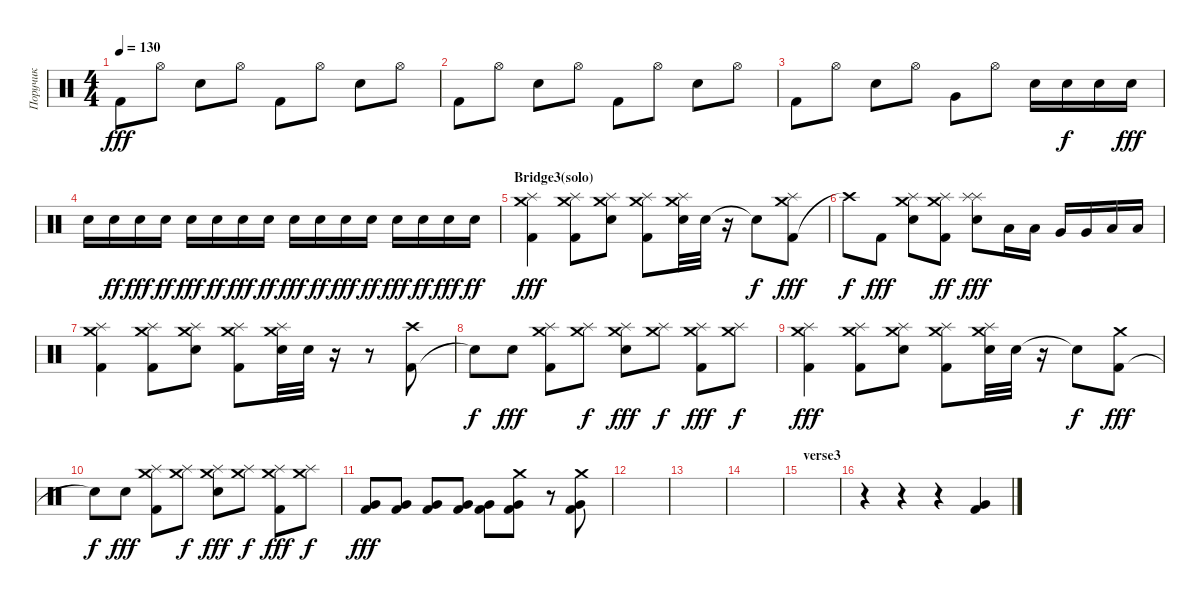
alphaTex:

\track ("Поручик" "Поручик") {instrument percussion}
\staff {score}
\articulation defaults
\ts (4 4)
\tempo 130
\clef neutral
\ks c "Kick (hit) 2".8{dy fff} "Hi-Hat (open)".8 "Snare (hit) 2".8 "Hi-Hat (open)".8 "Kick (hit) 2".8 "Hi-Hat (open)".8 "Snare (hit) 2".8 "Hi-Hat (open)".8
|
"Kick (hit) 2".8 "Hi-Hat (open)".8 "Snare (hit) 2".8 "Hi-Hat (open)".8 "Kick (hit) 2".8 "Hi-Hat (open)".8 "Snare (hit) 2".8 "Hi-Hat (open)".8 |
"Kick (hit) 2".8 "Hi-Hat (open)".8 "Snare (hit) 2".8 "Hi-Hat (open)".8 "Very Low Tom (hit)".8 "Hi-Hat (open)".8 "Snare (hit) 2".16 "Snare (hit) 2".16{dy f} "Snare (hit) 2".16 "Snare (hit) 2".16{dy fff} |
"Snare (hit) 2".16 "Snare (hit) 2".16{dy ff} "Snare (hit) 2".16{dy fff} "Snare (hit) 2".16{dy ff} "Snare (hit) 2".16{dy fff} "Snare (hit) 2".16{dy ff} "Snare (hit) 2".16{dy fff} "Snare (hit) 2".16{dy ff} "Snare (hit) 2".16{dy fff} "Snare (hit) 2".16{dy ff} "Snare (hit) 2".16{dy fff} "Snare (hit) 2".16{dy ff} "Snare (hit) 2".16{dy fff} "Snare (hit) 2".16{dy ff} "Snare (hit) 2".16{dy fff} "Snare (hit) 2".16{dy ff} |
\section ("" "Bridge3(solo)")
("Kick (hit) 2" "Crash medium (hit)" "Splash (hit)").4{dy fff} ("Kick (hit) 2" "Crash medium (hit)" "Splash (hit)").8 ("Snare (hit) 2" "Crash medium (hit)" "Splash (hit)").8 ("Kick (hit) 2" "Crash medium (hit)" "Splash (hit)").8 ("Snare (hit) 2" "Crash medium (hit)" "Splash (hit)").32 "Snare (hit) 2".32 r.16 "Snare (hit)"{t}.8{dy f} ("Kick (hit) 2" "Crash medium (hit)" "Splash (hit)").8{dy fff} |
"Crash high (hit)"{t}.8{dy f} "Kick (hit) 2".8{dy fff} ("Snare (hit) 2" "Crash medium (hit)" "Splash (hit)").8 ("Kick (hit) 2" "Crash medium (hit)" "Splash (hit)").8{dy ff} ("Snare (hit) 2" "Splash (hit)" "Splash (hit)").8{dy fff} "Low Tom (hit)".16 "Low Tom (hit)".16 "Very Low Tom (hit)".16 "Very Low Tom (hit)".16 "Low Floor Tom (hit)".16 "Low Floor Tom (hit)".16 |
("Kick (hit) 2" "Crash medium (hit)" "Splash (hit)").4 ("Kick (hit) 2" "Crash medium (hit)" "Splash (hit)").8 ("Snare (hit) 2" "Crash medium (hit)" "Splash (hit)").8 ("Kick (hit) 2" "Crash medium (hit)" "Splash (hit)").8 ("Snare (hit) 2" "Crash medium (hit)" "Splash (hit)").32 "Snare (hit) 2".32 r.16 r.8 ("Kick (hit) 2" "Crash high (hit)").8 |
"Snare (hit)"{t}.8{dy f} "Snare (hit) 2".8{dy fff} ("Kick (hit) 2" "Crash medium (hit)" "Splash (hit)").8 ("Crash medium (hit)" "Splash (hit)").8{dy f} ("Snare (hit) 2" "Crash medium (hit)" "Splash (hit)").8{dy fff} ("Crash medium (hit)" "Splash (hit)").8{dy f} ("Kick (hit) 2" "Crash medium (hit)" "Splash (hit)").8{dy fff} ("Crash medium (hit)" "Splash (hit)").8{dy f} |
("Kick (hit) 2" "Crash medium (hit)" "Splash (hit)").4{dy fff} ("Kick (hit) 2" "Crash medium (hit)" "Splash (hit)").8 ("Snare (hit) 2" "Crash medium (hit)" "Splash (hit)").8 ("Kick (hit) 2" "Crash medium (hit)" "Splash (hit)").8 ("Snare (hit) 2" "Crash medium (hit)" "Splash (hit)").32 "Snare (hit) 2".32 r.16 "Snare (hit)"{t}.8{dy f} ("Kick (hit) 2" "Crash medium (hit)").8{dy fff} |
"Snare (hit)"{t}.8{dy f} "Snare (hit) 2".8{dy fff} ("Kick (hit) 2" "Crash medium (hit)" "Splash (hit)").8 ("Crash medium (hit)" "Splash (hit)").8{dy f} ("Snare (hit) 2" "Crash medium (hit)" "Splash (hit)").8{dy fff} ("Crash medium (hit)" "Splash (hit)").8{dy f} ("Kick (hit) 2" "Crash medium (hit)" "Splash (hit)").8{dy fff} ("Crash medium (hit)" "Splash (hit)").8{dy f} |
("Very Low Tom (hit)" "Kick (hit) 2").8{dy fff} ("Very Low Tom (hit)" "Kick (hit) 2").8 ("Very Low Tom (hit)" "Kick (hit) 2").8 ("Very Low Tom (hit)" "Kick (hit) 2").8 ("Very Low Tom (hit)" "Kick (hit) 2").8 ("Very Low Tom (hit)" "Kick (hit) 2" "Crash medium (hit)").8 r.8 ("Very Low Tom (hit)" "Kick (hit) 2" "Crash medium (hit)").8 |
|
|
|
\section ("" "verse3")
|
r.4 r.4 r.4 ("Very Low Tom (hit)" "Kick (hit) 2").4
